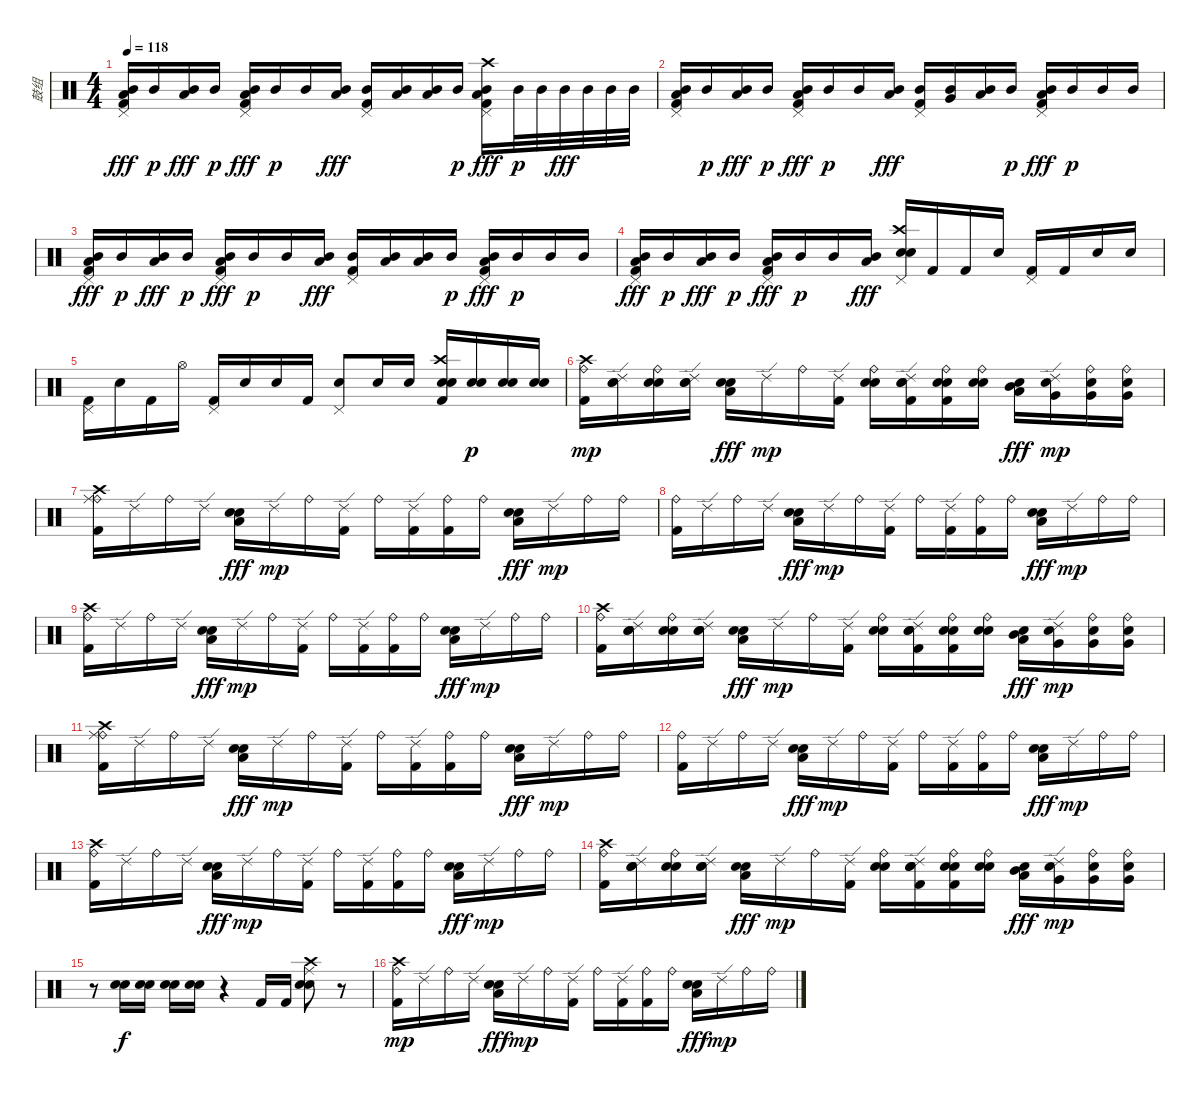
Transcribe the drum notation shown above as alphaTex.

\track ("鼓组" "鼓组") {instrument percussion}
\staff {score}
\articulation defaults
\ts (4 4)
\tempo 118
\clef neutral
\ks c
("Pedal Hi-Hat (hit)" "Mid Tom (hit)" "Low Floor Tom (hit)" "Kick (hit) 2").16{dy fff} "Mid Tom (hit)".16{dy p} ("Mid Tom (hit)" "Low Floor Tom (hit)").16{dy fff} "Mid Tom (hit)".16{dy p} ("Low Tom (hit)" "Mid Tom (hit)" "Pedal Hi-Hat (hit)" "Kick (hit) 2").16{dy fff} "Mid Tom (hit)".16{dy p} "Mid Tom (hit)".16 ("Mid Tom (hit)" "Low Tom (hit)").16{dy fff} ("Pedal Hi-Hat (hit)" "Mid Tom (hit)" "Kick (hit) 2").16 ("Mid Tom (hit)" "Low Tom (hit)").16 ("Mid Tom (hit)" "Low Tom (hit)").16 "Mid Tom (hit)".16{dy p} ("Low Tom (hit)" "Mid Tom (hit)" "Pedal Hi-Hat (hit)" "Crash high (hit)" "Kick (hit) 2").16{dy fff} "Mid Tom (hit)".32{dy p} "Mid Tom (hit)".32 "Mid Tom (hit)".32{dy fff} "Mid Tom (hit)".32 "Mid Tom (hit)".32 "Mid Tom (hit)".32 |
("Pedal Hi-Hat (hit)" "Mid Tom (hit)" "Low Floor Tom (hit)" "Kick (hit) 2").16 "Mid Tom (hit)".16{dy p} ("Mid Tom (hit)" "Low Floor Tom (hit)").16{dy fff} "Mid Tom (hit)".16{dy p} ("Low Tom (hit)" "Mid Tom (hit)" "Pedal Hi-Hat (hit)" "Kick (hit) 2").16{dy fff} "Mid Tom (hit)".16{dy p} "Mid Tom (hit)".16 ("Mid Tom (hit)" "Low Tom (hit)").16{dy fff} ("Pedal Hi-Hat (hit)" "Mid Tom (hit)" "Kick (hit) 2").16 ("Mid Tom (hit)" "Very Low Tom (hit)").16 ("Mid Tom (hit)" "Low Floor Tom (hit)").16 "Mid Tom (hit)".16{dy p} ("Low Tom (hit)" "Mid Tom (hit)" "Pedal Hi-Hat (hit)" "Kick (hit) 2").16{dy fff} "Mid Tom (hit)".16{dy p} "Mid Tom (hit)".16 "Mid Tom (hit)".16 |
("Pedal Hi-Hat (hit)" "Mid Tom (hit)" "Low Floor Tom (hit)" "Kick (hit) 2").16{dy fff} "Mid Tom (hit)".16{dy p} ("Mid Tom (hit)" "Low Floor Tom (hit)").16{dy fff} "Mid Tom (hit)".16{dy p} ("Low Tom (hit)" "Mid Tom (hit)" "Pedal Hi-Hat (hit)" "Kick (hit) 2").16{dy fff} "Mid Tom (hit)".16{dy p} "Mid Tom (hit)".16 ("Mid Tom (hit)" "Low Tom (hit)").16{dy fff} ("Pedal Hi-Hat (hit)" "Mid Tom (hit)" "Kick (hit) 2").16 ("Mid Tom (hit)" "Low Tom (hit)").16 ("Mid Tom (hit)" "Low Tom (hit)").16 "Mid Tom (hit)".16{dy p} ("Low Tom (hit)" "Mid Tom (hit)" "Pedal Hi-Hat (hit)" "Kick (hit) 2").16{dy fff} "Mid Tom (hit)".16{dy p} "Mid Tom (hit)".16 "Mid Tom (hit)".16 |
("Pedal Hi-Hat (hit)" "Mid Tom (hit)" "Low Floor Tom (hit)" "Kick (hit) 2").16{dy fff} "Mid Tom (hit)".16{dy p} ("Mid Tom (hit)" "Low Floor Tom (hit)").16{dy fff} "Mid Tom (hit)".16{dy p} ("Low Tom (hit)" "Mid Tom (hit)" "Pedal Hi-Hat (hit)" "Kick (hit) 2").16{dy fff} "Mid Tom (hit)".16{dy p} "Mid Tom (hit)".16 ("Mid Tom (hit)" "Low Tom (hit)").16{dy fff} ("Pedal Hi-Hat (hit)" "Snare (hit) 2" "Electric Snare (hit)" "Crash high (hit)").16 "Kick (hit) 2".16 "Kick (hit) 2".16 "Snare (hit) 2".16 ("Pedal Hi-Hat (hit)" "Kick (hit) 2").16 "Kick (hit) 2".16 "Snare (hit) 2".16 "Snare (hit) 2".16 |
("Pedal Hi-Hat (hit)" "Kick (hit) 2").16 "Snare (hit) 2".16 "Kick (hit) 2".16 "Hi-Hat (open)".16 ("Pedal Hi-Hat (hit)" "Kick (hit) 2").16 "Snare (hit) 2".16 "Snare (hit) 2".16 "Kick (hit) 2".16 ("Pedal Hi-Hat (hit)" "Snare (hit) 2").8 "Snare (hit) 2".16 "Snare (hit) 2".16 ("Electric Snare (hit)" "Snare (hit) 2" "Crash high (hit)" "Kick (hit) 2").16 ("Electric Snare (hit)" "Snare (hit) 2").16{dy p} ("Electric Snare (hit)" "Snare (hit) 2").16 ("Electric Snare (hit)" "Snare (hit) 2").16 |
("Ride (bell)" "Crash high (hit)" "Kick (hit) 2").16{dy mp} ("Ride (edge) 2" "Snare (hit) 2" "Electric Snare (hit)").16 ("Ride (bell)" "Snare (hit) 2" "Electric Snare (hit)").16 ("Ride (edge) 2" "Snare (hit) 2" "Electric Snare (hit)").16 ("Low Tom (hit)" "Snare (hit) 2" "Electric Snare (hit)").16{dy fff} "Ride (edge) 2".16{dy mp} "Ride (bell)".16 ("Ride (edge) 2" "Kick (hit) 2").16 ("Ride (bell)" "Electric Snare (hit)" "Snare (hit) 2").16 ("Ride (edge) 2" "Electric Snare (hit)" "Snare (hit) 2" "Kick (hit) 2").16 ("Ride (bell)" "Electric Snare (hit)" "Snare (hit) 2" "Kick (hit) 2").16 ("Ride (bell)" "Electric Snare (hit)" "Snare (hit) 2").16 ("Low Tom (hit)" "Mid Tom (hit)" "Snare (hit) 2").16{dy fff} ("Ride (edge) 2" "Very Low Tom (hit)" "Snare (hit) 2").16{dy mp} ("Ride (bell)" "Very Low Tom (hit)" "Snare (hit) 2").16 ("Ride (bell)" "Very Low Tom (hit)" "Snare (hit) 2").16 |
("Ride (bell)" "Ride (middle)" "Crash high (hit)" "Kick (hit) 2").16 "Ride (edge) 2".16 "Ride (bell)".16 "Ride (edge) 2".16 ("Low Tom (hit)" "Snare (hit) 2" "Electric Snare (hit)").16{dy fff} "Ride (edge) 2".16{dy mp} "Ride (bell)".16 ("Ride (edge) 2" "Kick (hit) 2").16 "Ride (bell)".16 ("Ride (edge) 2" "Kick (hit) 2").16 ("Ride (bell)" "Kick (hit) 2").16 "Ride (bell)".16 ("Low Tom (hit)" "Electric Snare (hit)" "Snare (hit) 2").16{dy fff} "Ride (edge) 2".16{dy mp} "Ride (bell)".16 "Ride (bell)".16 |
("Ride (bell)" "Kick (hit) 2").16 "Ride (edge) 2".16 "Ride (bell)".16 "Ride (edge) 2".16 ("Low Tom (hit)" "Snare (hit) 2" "Electric Snare (hit)").16{dy fff} "Ride (edge) 2".16{dy mp} "Ride (bell)".16 ("Ride (edge) 2" "Kick (hit) 2").16 "Ride (bell)".16 ("Ride (edge) 2" "Kick (hit) 2").16 ("Ride (bell)" "Kick (hit) 2").16 "Ride (bell)".16 ("Low Tom (hit)" "Electric Snare (hit)" "Snare (hit) 2").16{dy fff} "Ride (edge) 2".16{dy mp} "Ride (bell)".16 "Ride (bell)".16 |
("Ride (bell)" "Crash high (hit)" "Kick (hit) 2").16 "Ride (edge) 2".16 "Ride (bell)".16 "Ride (edge) 2".16 ("Low Tom (hit)" "Snare (hit) 2" "Electric Snare (hit)").16{dy fff} "Ride (edge) 2".16{dy mp} "Ride (bell)".16 ("Ride (edge) 2" "Kick (hit) 2").16 "Ride (bell)".16 ("Ride (edge) 2" "Kick (hit) 2").16 ("Ride (bell)" "Kick (hit) 2").16 "Ride (bell)".16 ("Low Tom (hit)" "Electric Snare (hit)" "Snare (hit) 2").16{dy fff} "Ride (edge) 2".16{dy mp} "Ride (bell)".16 "Ride (bell)".16 |
("Ride (bell)" "Crash high (hit)" "Kick (hit) 2").16 ("Ride (edge) 2" "Snare (hit) 2" "Electric Snare (hit)").16 ("Ride (bell)" "Snare (hit) 2" "Electric Snare (hit)").16 ("Ride (edge) 2" "Snare (hit) 2" "Electric Snare (hit)").16 ("Low Tom (hit)" "Snare (hit) 2" "Electric Snare (hit)").16{dy fff} "Ride (edge) 2".16{dy mp} "Ride (bell)".16 ("Ride (edge) 2" "Kick (hit) 2").16 ("Ride (bell)" "Electric Snare (hit)" "Snare (hit) 2").16 ("Ride (edge) 2" "Electric Snare (hit)" "Snare (hit) 2" "Kick (hit) 2").16 ("Ride (bell)" "Electric Snare (hit)" "Snare (hit) 2" "Kick (hit) 2").16 ("Ride (bell)" "Electric Snare (hit)" "Snare (hit) 2").16 ("Low Tom (hit)" "Mid Tom (hit)" "Snare (hit) 2").16{dy fff} ("Ride (edge) 2" "Very Low Tom (hit)" "Snare (hit) 2").16{dy mp} ("Ride (bell)" "Very Low Tom (hit)" "Snare (hit) 2").16 ("Ride (bell)" "Very Low Tom (hit)" "Snare (hit) 2").16 |
("Ride (bell)" "Ride (middle)" "Crash high (hit)" "Kick (hit) 2").16 "Ride (edge) 2".16 "Ride (bell)".16 "Ride (edge) 2".16 ("Low Tom (hit)" "Snare (hit) 2" "Electric Snare (hit)").16{dy fff} "Ride (edge) 2".16{dy mp} "Ride (bell)".16 ("Ride (edge) 2" "Kick (hit) 2").16 "Ride (bell)".16 ("Ride (edge) 2" "Kick (hit) 2").16 ("Ride (bell)" "Kick (hit) 2").16 "Ride (bell)".16 ("Low Tom (hit)" "Electric Snare (hit)" "Snare (hit) 2").16{dy fff} "Ride (edge) 2".16{dy mp} "Ride (bell)".16 "Ride (bell)".16 |
("Ride (bell)" "Kick (hit) 2").16 "Ride (edge) 2".16 "Ride (bell)".16 "Ride (edge) 2".16 ("Low Tom (hit)" "Snare (hit) 2" "Electric Snare (hit)").16{dy fff} "Ride (edge) 2".16{dy mp} "Ride (bell)".16 ("Ride (edge) 2" "Kick (hit) 2").16 "Ride (bell)".16 ("Ride (edge) 2" "Kick (hit) 2").16 ("Ride (bell)" "Kick (hit) 2").16 "Ride (bell)".16 ("Low Tom (hit)" "Electric Snare (hit)" "Snare (hit) 2").16{dy fff} "Ride (edge) 2".16{dy mp} "Ride (bell)".16 "Ride (bell)".16 |
("Ride (bell)" "Crash high (hit)" "Kick (hit) 2").16 "Ride (edge) 2".16 "Ride (bell)".16 "Ride (edge) 2".16 ("Low Tom (hit)" "Snare (hit) 2" "Electric Snare (hit)").16{dy fff} "Ride (edge) 2".16{dy mp} "Ride (bell)".16 ("Ride (edge) 2" "Kick (hit) 2").16 "Ride (bell)".16 ("Ride (edge) 2" "Kick (hit) 2").16 ("Ride (bell)" "Kick (hit) 2").16 "Ride (bell)".16 ("Low Tom (hit)" "Electric Snare (hit)" "Snare (hit) 2").16{dy fff} "Ride (edge) 2".16{dy mp} "Ride (bell)".16 "Ride (bell)".16 |
("Ride (bell)" "Crash high (hit)" "Kick (hit) 2").16 ("Ride (edge) 2" "Snare (hit) 2" "Electric Snare (hit)").16 ("Ride (bell)" "Snare (hit) 2" "Electric Snare (hit)").16 ("Ride (edge) 2" "Snare (hit) 2" "Electric Snare (hit)").16 ("Low Tom (hit)" "Snare (hit) 2" "Electric Snare (hit)").16{dy fff} "Ride (edge) 2".16{dy mp} "Ride (bell)".16 ("Ride (edge) 2" "Kick (hit) 2").16 ("Ride (bell)" "Electric Snare (hit)" "Snare (hit) 2").16 ("Ride (edge) 2" "Electric Snare (hit)" "Snare (hit) 2" "Kick (hit) 2").16 ("Ride (bell)" "Electric Snare (hit)" "Snare (hit) 2" "Kick (hit) 2").16 ("Ride (bell)" "Electric Snare (hit)" "Snare (hit) 2").16 ("Low Tom (hit)" "Mid Tom (hit)" "Snare (hit) 2").16{dy fff} ("Ride (edge) 2" "Very Low Tom (hit)" "Snare (hit) 2").16{dy mp} ("Ride (bell)" "Very Low Tom (hit)" "Snare (hit) 2").16 ("Ride (bell)" "Very Low Tom (hit)" "Snare (hit) 2").16 |
r.8 ("Electric Snare (hit)" "Snare (hit) 2").16{dy f} ("Electric Snare (hit)" "Snare (hit) 2").16 ("Electric Snare (hit)" "Snare (hit) 2").16 ("Electric Snare (hit)" "Snare (hit) 2").16 r.4 "Kick (hit) 2".16 "Kick (hit) 2".16 ("Ride (middle)" "Crash high (hit)" "Electric Snare (hit)" "Snare (hit) 2").8 r.8 |
("Ride (bell)" "Crash high (hit)" "Kick (hit) 2").16{dy mp} "Ride (edge) 2".16 "Ride (bell)".16 "Ride (edge) 2".16 ("Low Tom (hit)" "Snare (hit) 2" "Electric Snare (hit)").16{dy fff} "Ride (edge) 2".16{dy mp} "Ride (bell)".16 ("Ride (edge) 2" "Kick (hit) 2").16 "Ride (bell)".16 ("Ride (edge) 2" "Kick (hit) 2").16 ("Ride (bell)" "Kick (hit) 2").16 "Ride (bell)".16 ("Low Tom (hit)" "Electric Snare (hit)" "Snare (hit) 2").16{dy fff} "Ride (edge) 2".16{dy mp} "Ride (bell)".16 "Ride (bell)".16
